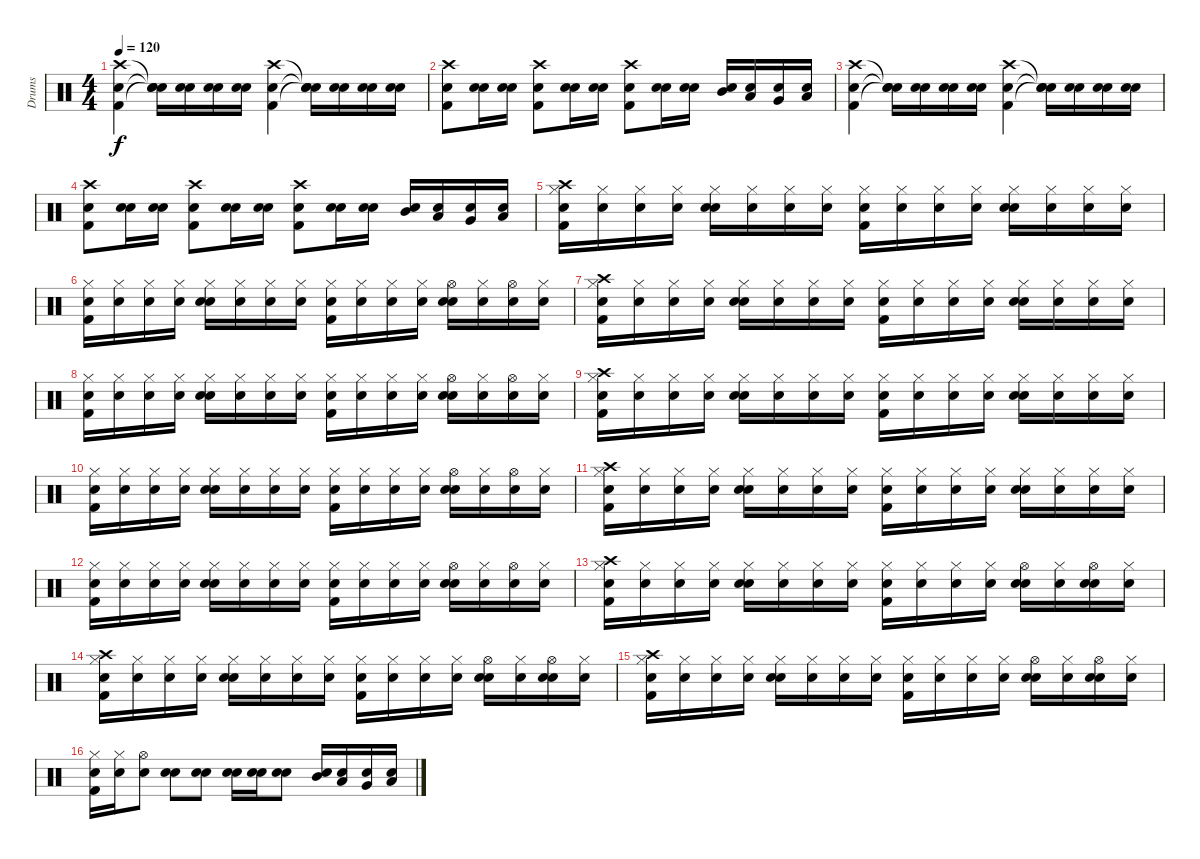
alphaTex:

\track ("Drums" "Drums") {instrument percussion}
\staff {score}
\articulation defaults
\ts (4 4)
\tempo 120
\clef neutral
\ks c
("Snare (hit)" "Kick (hit) 2" "Crash high (hit)").4{dy f} ("Snare (hit)"{t} "Snare (hit)"{t} "Snare (hit)"{t}).16 ("Snare (hit)" "Snare (hit) 2").16 ("Snare (hit)" "Snare (hit) 2").16 ("Snare (hit)" "Snare (hit) 2").16 ("Snare (hit)" "Kick (hit) 2" "Crash high (hit)").4 ("Snare (hit)"{t} "Snare (hit)"{t} "Snare (hit)"{t}).16 ("Snare (hit)" "Snare (hit) 2").16 ("Snare (hit)" "Snare (hit) 2").16 ("Snare (hit)" "Snare (hit) 2").16 |
("Snare (hit)" "Kick (hit) 2" "Crash high (hit)").8 ("Snare (hit)" "Snare (hit) 2").16 ("Snare (hit)" "Snare (hit) 2").16 ("Snare (hit)" "Kick (hit) 2" "Crash high (hit)").8 ("Snare (hit)" "Snare (hit) 2").16 ("Snare (hit)" "Snare (hit) 2").16 ("Snare (hit)" "Kick (hit) 2" "Crash high (hit)").8 ("Snare (hit)" "Snare (hit) 2").16 ("Snare (hit)" "Snare (hit) 2").16 ("Snare (hit)" "Mid Tom (hit)").16 ("Snare (hit)" "Low Tom (hit)").16 ("Snare (hit)" "Very Low Tom (hit)").16 ("Snare (hit)" "Low Floor Tom (hit)").16 |
("Snare (hit)" "Kick (hit) 2" "Crash high (hit)").4 ("Snare (hit)"{t} "Snare (hit)"{t} "Snare (hit)"{t}).16 ("Snare (hit)" "Snare (hit) 2").16 ("Snare (hit)" "Snare (hit) 2").16 ("Snare (hit)" "Snare (hit) 2").16 ("Snare (hit)" "Kick (hit) 2" "Crash high (hit)").4 ("Snare (hit)"{t} "Snare (hit)"{t} "Snare (hit)"{t}).16 ("Snare (hit)" "Snare (hit) 2").16 ("Snare (hit)" "Snare (hit) 2").16 ("Snare (hit)" "Snare (hit) 2").16 |
("Snare (hit)" "Kick (hit) 2" "Crash high (hit)").8 ("Snare (hit)" "Snare (hit) 2").16 ("Snare (hit)" "Snare (hit) 2").16 ("Snare (hit)" "Kick (hit) 2" "Crash high (hit)").8 ("Snare (hit)" "Snare (hit) 2").16 ("Snare (hit)" "Snare (hit) 2").16 ("Snare (hit)" "Kick (hit) 2" "Crash high (hit)").8 ("Snare (hit)" "Snare (hit) 2").16 ("Snare (hit)" "Snare (hit) 2").16 ("Snare (hit)" "Mid Tom (hit)").16 ("Snare (hit)" "Low Tom (hit)").16 ("Snare (hit)" "Very Low Tom (hit)").16 ("Snare (hit)" "Low Floor Tom (hit)").16 |
("Snare (hit)" "Kick (hit) 2" "Hi-Hat (closed)" "Crash high (hit)").16 ("Snare (hit)" "Hi-Hat (closed)").16 ("Snare (hit)" "Hi-Hat (closed)").16 ("Snare (hit)" "Hi-Hat (closed)").16 ("Snare (hit)" "Snare (hit) 2" "Hi-Hat (closed)").16 ("Snare (hit)" "Hi-Hat (closed)").16 ("Snare (hit)" "Hi-Hat (closed)").16 ("Snare (hit)" "Hi-Hat (closed)").16 ("Snare (hit)" "Kick (hit) 2" "Hi-Hat (closed)").16 ("Snare (hit)" "Hi-Hat (closed)").16 ("Snare (hit)" "Hi-Hat (closed)").16 ("Snare (hit)" "Hi-Hat (closed)").16 ("Snare (hit)" "Snare (hit) 2" "Hi-Hat (closed)").16 ("Snare (hit)" "Hi-Hat (closed)").16 ("Snare (hit)" "Hi-Hat (closed)").16 ("Snare (hit)" "Hi-Hat (closed)").16 |
("Snare (hit)" "Kick (hit) 2" "Hi-Hat (closed)").16 ("Snare (hit)" "Hi-Hat (closed)").16 ("Snare (hit)" "Hi-Hat (closed)").16 ("Snare (hit)" "Hi-Hat (closed)").16 ("Snare (hit)" "Snare (hit) 2" "Hi-Hat (closed)").16 ("Snare (hit)" "Hi-Hat (closed)").16 ("Snare (hit)" "Hi-Hat (closed)").16 ("Snare (hit)" "Hi-Hat (closed)").16 ("Snare (hit)" "Kick (hit) 2" "Hi-Hat (closed)").16 ("Snare (hit)" "Hi-Hat (closed)").16 ("Snare (hit)" "Hi-Hat (closed)").16 ("Snare (hit)" "Hi-Hat (closed)").16 ("Snare (hit)" "Snare (hit) 2" "Hi-Hat (open)").16 ("Snare (hit)" "Hi-Hat (closed)").16 ("Snare (hit)" "Hi-Hat (open)").16 ("Snare (hit)" "Hi-Hat (closed)").16 |
("Snare (hit)" "Kick (hit) 2" "Hi-Hat (closed)" "Crash high (hit)").16 ("Snare (hit)" "Hi-Hat (closed)").16 ("Snare (hit)" "Hi-Hat (closed)").16 ("Snare (hit)" "Hi-Hat (closed)").16 ("Snare (hit)" "Snare (hit) 2" "Hi-Hat (closed)").16 ("Snare (hit)" "Hi-Hat (closed)").16 ("Snare (hit)" "Hi-Hat (closed)").16 ("Snare (hit)" "Hi-Hat (closed)").16 ("Snare (hit)" "Kick (hit) 2" "Hi-Hat (closed)").16 ("Snare (hit)" "Hi-Hat (closed)").16 ("Snare (hit)" "Hi-Hat (closed)").16 ("Snare (hit)" "Hi-Hat (closed)").16 ("Snare (hit)" "Snare (hit) 2" "Hi-Hat (closed)").16 ("Snare (hit)" "Hi-Hat (closed)").16 ("Snare (hit)" "Hi-Hat (closed)").16 ("Snare (hit)" "Hi-Hat (closed)").16 |
("Snare (hit)" "Kick (hit) 2" "Hi-Hat (closed)").16 ("Snare (hit)" "Hi-Hat (closed)").16 ("Snare (hit)" "Hi-Hat (closed)").16 ("Snare (hit)" "Hi-Hat (closed)").16 ("Snare (hit)" "Snare (hit) 2" "Hi-Hat (closed)").16 ("Snare (hit)" "Hi-Hat (closed)").16 ("Snare (hit)" "Hi-Hat (closed)").16 ("Snare (hit)" "Hi-Hat (closed)").16 ("Snare (hit)" "Kick (hit) 2" "Hi-Hat (closed)").16 ("Snare (hit)" "Hi-Hat (closed)").16 ("Snare (hit)" "Hi-Hat (closed)").16 ("Snare (hit)" "Hi-Hat (closed)").16 ("Snare (hit)" "Snare (hit) 2" "Hi-Hat (open)").16 ("Snare (hit)" "Hi-Hat (closed)").16 ("Snare (hit)" "Hi-Hat (open)").16 ("Snare (hit)" "Hi-Hat (closed)").16 |
("Snare (hit)" "Kick (hit) 2" "Hi-Hat (closed)" "Crash high (hit)").16 ("Snare (hit)" "Hi-Hat (closed)").16 ("Snare (hit)" "Hi-Hat (closed)").16 ("Snare (hit)" "Hi-Hat (closed)").16 ("Snare (hit)" "Snare (hit) 2" "Hi-Hat (closed)").16 ("Snare (hit)" "Hi-Hat (closed)").16 ("Snare (hit)" "Hi-Hat (closed)").16 ("Snare (hit)" "Hi-Hat (closed)").16 ("Snare (hit)" "Kick (hit) 2" "Hi-Hat (closed)").16 ("Snare (hit)" "Hi-Hat (closed)").16 ("Snare (hit)" "Hi-Hat (closed)").16 ("Snare (hit)" "Hi-Hat (closed)").16 ("Snare (hit)" "Snare (hit) 2" "Hi-Hat (closed)").16 ("Snare (hit)" "Hi-Hat (closed)").16 ("Snare (hit)" "Hi-Hat (closed)").16 ("Snare (hit)" "Hi-Hat (closed)").16 |
("Snare (hit)" "Kick (hit) 2" "Hi-Hat (closed)").16 ("Snare (hit)" "Hi-Hat (closed)").16 ("Snare (hit)" "Hi-Hat (closed)").16 ("Snare (hit)" "Hi-Hat (closed)").16 ("Snare (hit)" "Snare (hit) 2" "Hi-Hat (closed)").16 ("Snare (hit)" "Hi-Hat (closed)").16 ("Snare (hit)" "Hi-Hat (closed)").16 ("Snare (hit)" "Hi-Hat (closed)").16 ("Snare (hit)" "Kick (hit) 2" "Hi-Hat (closed)").16 ("Snare (hit)" "Hi-Hat (closed)").16 ("Snare (hit)" "Hi-Hat (closed)").16 ("Snare (hit)" "Hi-Hat (closed)").16 ("Snare (hit)" "Snare (hit) 2" "Hi-Hat (open)").16 ("Snare (hit)" "Hi-Hat (closed)").16 ("Snare (hit)" "Hi-Hat (open)").16 ("Snare (hit)" "Hi-Hat (closed)").16 |
("Snare (hit)" "Kick (hit) 2" "Hi-Hat (closed)" "Crash high (hit)").16 ("Snare (hit)" "Hi-Hat (closed)").16 ("Snare (hit)" "Hi-Hat (closed)").16 ("Snare (hit)" "Hi-Hat (closed)").16 ("Snare (hit)" "Snare (hit) 2" "Hi-Hat (closed)").16 ("Snare (hit)" "Hi-Hat (closed)").16 ("Snare (hit)" "Hi-Hat (closed)").16 ("Snare (hit)" "Hi-Hat (closed)").16 ("Snare (hit)" "Kick (hit) 2" "Hi-Hat (closed)").16 ("Snare (hit)" "Hi-Hat (closed)").16 ("Snare (hit)" "Hi-Hat (closed)").16 ("Snare (hit)" "Hi-Hat (closed)").16 ("Snare (hit)" "Snare (hit) 2" "Hi-Hat (closed)").16 ("Snare (hit)" "Hi-Hat (closed)").16 ("Snare (hit)" "Hi-Hat (closed)").16 ("Snare (hit)" "Hi-Hat (closed)").16 |
("Snare (hit)" "Kick (hit) 2" "Hi-Hat (closed)").16 ("Snare (hit)" "Hi-Hat (closed)").16 ("Snare (hit)" "Hi-Hat (closed)").16 ("Snare (hit)" "Hi-Hat (closed)").16 ("Snare (hit)" "Snare (hit) 2" "Hi-Hat (closed)").16 ("Snare (hit)" "Hi-Hat (closed)").16 ("Snare (hit)" "Hi-Hat (closed)").16 ("Snare (hit)" "Hi-Hat (closed)").16 ("Snare (hit)" "Kick (hit) 2" "Hi-Hat (closed)").16 ("Snare (hit)" "Hi-Hat (closed)").16 ("Snare (hit)" "Hi-Hat (closed)").16 ("Snare (hit)" "Hi-Hat (closed)").16 ("Snare (hit)" "Snare (hit) 2" "Hi-Hat (open)").16 ("Snare (hit)" "Hi-Hat (closed)").16 ("Snare (hit)" "Hi-Hat (open)").16 ("Snare (hit)" "Hi-Hat (closed)").16 |
("Snare (hit)" "Kick (hit) 2" "Hi-Hat (closed)" "Crash high (hit)").16 ("Snare (hit)" "Hi-Hat (closed)").16 ("Snare (hit)" "Hi-Hat (closed)").16 ("Snare (hit)" "Hi-Hat (closed)").16 ("Snare (hit)" "Snare (hit) 2" "Hi-Hat (closed)").16 ("Snare (hit)" "Hi-Hat (closed)").16 ("Snare (hit)" "Hi-Hat (closed)").16 ("Snare (hit)" "Hi-Hat (closed)").16 ("Snare (hit)" "Kick (hit) 2" "Hi-Hat (closed)").16 ("Snare (hit)" "Hi-Hat (closed)").16 ("Snare (hit)" "Hi-Hat (closed)").16 ("Snare (hit)" "Hi-Hat (closed)").16 ("Snare (hit)" "Snare (hit) 2" "Hi-Hat (open)").16 ("Snare (hit)" "Hi-Hat (closed)").16 ("Snare (hit)" "Snare (hit) 2" "Hi-Hat (open)").16 ("Snare (hit)" "Hi-Hat (closed)").16 |
("Snare (hit)" "Kick (hit) 2" "Hi-Hat (closed)" "Crash high (hit)").16 ("Snare (hit)" "Hi-Hat (closed)").16 ("Snare (hit)" "Hi-Hat (closed)").16 ("Snare (hit)" "Hi-Hat (closed)").16 ("Snare (hit)" "Snare (hit) 2" "Hi-Hat (closed)").16 ("Snare (hit)" "Hi-Hat (closed)").16 ("Snare (hit)" "Hi-Hat (closed)").16 ("Snare (hit)" "Hi-Hat (closed)").16 ("Snare (hit)" "Kick (hit) 2" "Hi-Hat (closed)").16 ("Snare (hit)" "Hi-Hat (closed)").16 ("Snare (hit)" "Hi-Hat (closed)").16 ("Snare (hit)" "Hi-Hat (closed)").16 ("Snare (hit)" "Snare (hit) 2" "Hi-Hat (open)").16 ("Snare (hit)" "Hi-Hat (closed)").16 ("Snare (hit)" "Snare (hit) 2" "Hi-Hat (open)").16 ("Snare (hit)" "Hi-Hat (closed)").16 |
("Snare (hit)" "Kick (hit) 2" "Hi-Hat (closed)" "Crash high (hit)").16 ("Snare (hit)" "Hi-Hat (closed)").16 ("Snare (hit)" "Hi-Hat (closed)").16 ("Snare (hit)" "Hi-Hat (closed)").16 ("Snare (hit)" "Snare (hit) 2" "Hi-Hat (closed)").16 ("Snare (hit)" "Hi-Hat (closed)").16 ("Snare (hit)" "Hi-Hat (closed)").16 ("Snare (hit)" "Hi-Hat (closed)").16 ("Snare (hit)" "Kick (hit) 2" "Hi-Hat (closed)").16 ("Snare (hit)" "Hi-Hat (closed)").16 ("Snare (hit)" "Hi-Hat (closed)").16 ("Snare (hit)" "Hi-Hat (closed)").16 ("Snare (hit)" "Snare (hit) 2" "Hi-Hat (open)").16 ("Snare (hit)" "Hi-Hat (closed)").16 ("Snare (hit)" "Snare (hit) 2" "Hi-Hat (open)").16 ("Snare (hit)" "Hi-Hat (closed)").16 |
("Snare (hit)" "Kick (hit) 2" "Hi-Hat (closed)").16 ("Snare (hit)" "Hi-Hat (closed)").16 ("Snare (hit)" "Hi-Hat (open)").8 ("Snare (hit)" "Snare (hit) 2").8 ("Snare (hit)" "Snare (hit) 2").8 ("Snare (hit)" "Snare (hit) 2").16 ("Snare (hit)" "Snare (hit) 2").16 ("Snare (hit)" "Snare (hit) 2").8 ("Snare (hit)" "Mid Tom (hit)").16 ("Snare (hit)" "Low Tom (hit)").16 ("Snare (hit)" "Very Low Tom (hit)").16 ("Snare (hit)" "Low Floor Tom (hit)").16
